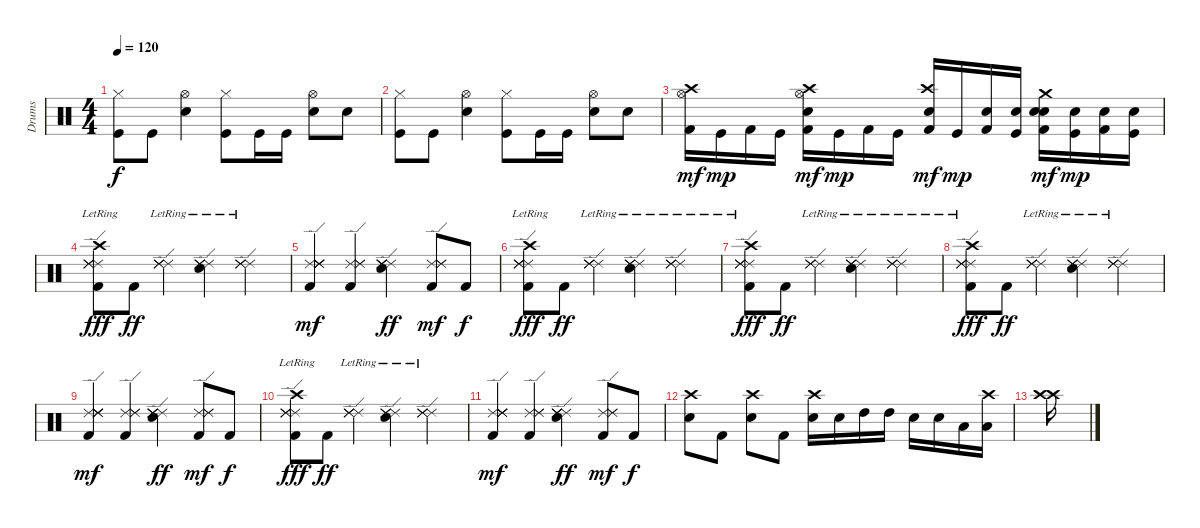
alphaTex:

\track ("Drums" "Drums") {instrument percussion}
\staff {score}
\articulation defaults
\ts (4 4)
\tempo 120
\clef neutral
\ks c
("Hi-Hat (closed)" "Kick (hit)").8{dy f} "Kick (hit)".8 ("Hi-Hat (open)" "Snare (hit) 2").4 ("Hi-Hat (closed)" "Kick (hit)").8 "Kick (hit)".16 "Kick (hit)".16 ("Hi-Hat (open)" "Snare (hit) 2").8 "Snare (hit) 2".8 |
("Hi-Hat (closed)" "Kick (hit)").8 "Kick (hit)".8 ("Hi-Hat (open)" "Snare (hit) 2").4 ("Hi-Hat (closed)" "Kick (hit)").8 "Kick (hit)".16 "Kick (hit)".16 ("Hi-Hat (open)" "Snare (hit) 2").8 "Snare (hit) 2".8 |
("Crash high (hit)" "Hi-Hat (open)" "Kick (hit) 2").16{dy mf} "Kick (hit)".16{dy mp} "Kick (hit) 2".16 "Kick (hit)".16 ("Crash high (hit)" "Hi-Hat (open)" "Snare (hit) 2" "Kick (hit) 2").16{dy mf} "Kick (hit)".16{dy mp} "Kick (hit) 2".16 "Kick (hit)".16 ("Crash high (hit)" "Snare (hit) 2" "Kick (hit) 2").16{dy mf} "Kick (hit)".16{dy mp} ("Snare (hit) 2" "Kick (hit) 2").16 ("Snare (hit) 2" "Kick (hit)").16 ("Crash medium (hit)" "Snare (hit) 2" "Snare (hit) 2" "Kick (hit) 2").16{dy mf} ("Snare (hit) 2" "Kick (hit)").16{dy mp} ("Snare (hit) 2" "Kick (hit) 2").16 ("Snare (hit) 2" "Kick (hit)").16 |
("Kick (hit) 2" "Crash high (hit)"{lr} "Ride (edge) 2" "Ride (edge) 2" "Ride (edge) 2" "Ride (edge) 2").8{dy fff} "Kick (hit) 2".8{dy ff} ("Ride (edge) 2" "Ride (edge) 2" "Ride (edge) 2" "Ride (edge) 2"{lr}).4 ("Ride (edge) 2" "Ride (edge) 2" "Ride (edge) 2" "Ride (edge) 2"{lr} "Snare (hit) 2"{lr}).4 ("Ride (edge) 2" "Ride (edge) 2" "Ride (edge) 2" "Ride (edge) 2"{lr}).4 |
("Kick (hit) 2" "Ride (edge) 2" "Ride (edge) 2" "Ride (edge) 2" "Ride (edge) 2" "Ride (edge) 2").4{dy mf} ("Kick (hit) 2" "Ride (edge) 2" "Ride (edge) 2" "Ride (edge) 2").4 ("Ride (edge) 2" "Ride (edge) 2" "Ride (edge) 2" "Ride (edge) 2" "Ride (edge) 2" "Snare (hit) 2").4{dy ff} ("Kick (hit) 2" "Ride (edge) 2" "Ride (edge) 2" "Ride (edge) 2").8{dy mf} "Kick (hit) 2".8{dy f} |
("Kick (hit) 2" "Crash high (hit)"{lr} "Ride (edge) 2" "Ride (edge) 2" "Ride (edge) 2" "Ride (edge) 2").8{dy fff} "Kick (hit) 2".8{dy ff} ("Ride (edge) 2" "Ride (edge) 2" "Ride (edge) 2" "Ride (edge) 2"{lr}).4 ("Ride (edge) 2" "Ride (edge) 2" "Ride (edge) 2" "Ride (edge) 2"{lr} "Snare (hit) 2"{lr}).4 ("Ride (edge) 2" "Ride (edge) 2" "Ride (edge) 2" "Ride (edge) 2"{lr}).4 |
("Kick (hit) 2" "Crash high (hit)"{lr} "Ride (edge) 2" "Ride (edge) 2" "Ride (edge) 2" "Ride (edge) 2").8{dy fff} "Kick (hit) 2".8{dy ff} ("Ride (edge) 2" "Ride (edge) 2" "Ride (edge) 2" "Ride (edge) 2"{lr}).4 ("Ride (edge) 2" "Ride (edge) 2" "Ride (edge) 2" "Ride (edge) 2"{lr} "Snare (hit) 2"{lr}).4 ("Ride (edge) 2" "Ride (edge) 2" "Ride (edge) 2" "Ride (edge) 2"{lr}).4 |
("Kick (hit) 2" "Crash high (hit)"{lr} "Ride (edge) 2" "Ride (edge) 2" "Ride (edge) 2" "Ride (edge) 2").8{dy fff} "Kick (hit) 2".8{dy ff} ("Ride (edge) 2" "Ride (edge) 2" "Ride (edge) 2" "Ride (edge) 2"{lr}).4 ("Ride (edge) 2" "Ride (edge) 2" "Ride (edge) 2" "Ride (edge) 2"{lr} "Snare (hit) 2"{lr}).4 ("Ride (edge) 2" "Ride (edge) 2" "Ride (edge) 2" "Ride (edge) 2"{lr}).4 |
("Kick (hit) 2" "Ride (edge) 2" "Ride (edge) 2" "Ride (edge) 2" "Ride (edge) 2" "Ride (edge) 2").4{dy mf} ("Kick (hit) 2" "Ride (edge) 2" "Ride (edge) 2" "Ride (edge) 2").4 ("Ride (edge) 2" "Ride (edge) 2" "Ride (edge) 2" "Ride (edge) 2" "Ride (edge) 2" "Snare (hit) 2").4{dy ff} ("Kick (hit) 2" "Ride (edge) 2" "Ride (edge) 2" "Ride (edge) 2").8{dy mf} "Kick (hit) 2".8{dy f} |
("Kick (hit) 2" "Crash high (hit)"{lr} "Ride (edge) 2" "Ride (edge) 2" "Ride (edge) 2" "Ride (edge) 2").8{dy fff} "Kick (hit) 2".8{dy ff} ("Ride (edge) 2" "Ride (edge) 2" "Ride (edge) 2" "Ride (edge) 2"{lr}).4 ("Ride (edge) 2" "Ride (edge) 2" "Ride (edge) 2" "Ride (edge) 2"{lr} "Snare (hit) 2"{lr}).4 ("Ride (edge) 2" "Ride (edge) 2" "Ride (edge) 2" "Ride (edge) 2"{lr}).4 |
("Kick (hit) 2" "Ride (edge) 2" "Ride (edge) 2" "Ride (edge) 2" "Ride (edge) 2" "Ride (edge) 2").4{dy mf} ("Kick (hit) 2" "Ride (edge) 2" "Ride (edge) 2" "Ride (edge) 2").4 ("Ride (edge) 2" "Ride (edge) 2" "Ride (edge) 2" "Ride (edge) 2" "Ride (edge) 2" "Snare (hit) 2").4{dy ff} ("Kick (hit) 2" "Ride (edge) 2" "Ride (edge) 2" "Ride (edge) 2").8{dy mf} "Kick (hit) 2".8{dy f} |
("Crash high (hit)" "Snare (hit) 2").8 "Kick (hit) 2".8 ("Crash high (hit)" "Snare (hit) 2").8 "Kick (hit) 2".8 ("Crash high (hit)" "Snare (hit) 2").16 "Snare (hit) 2".16 "High Tom (hit)".16 "High Tom (hit)".16 "Snare (hit) 2".16 "Snare (hit) 2".16 "Low Tom (hit)".16 ("Crash high (hit)" "Low Tom (hit)").16 |
("Crash high (hit)" "Crash high (hit)").16
